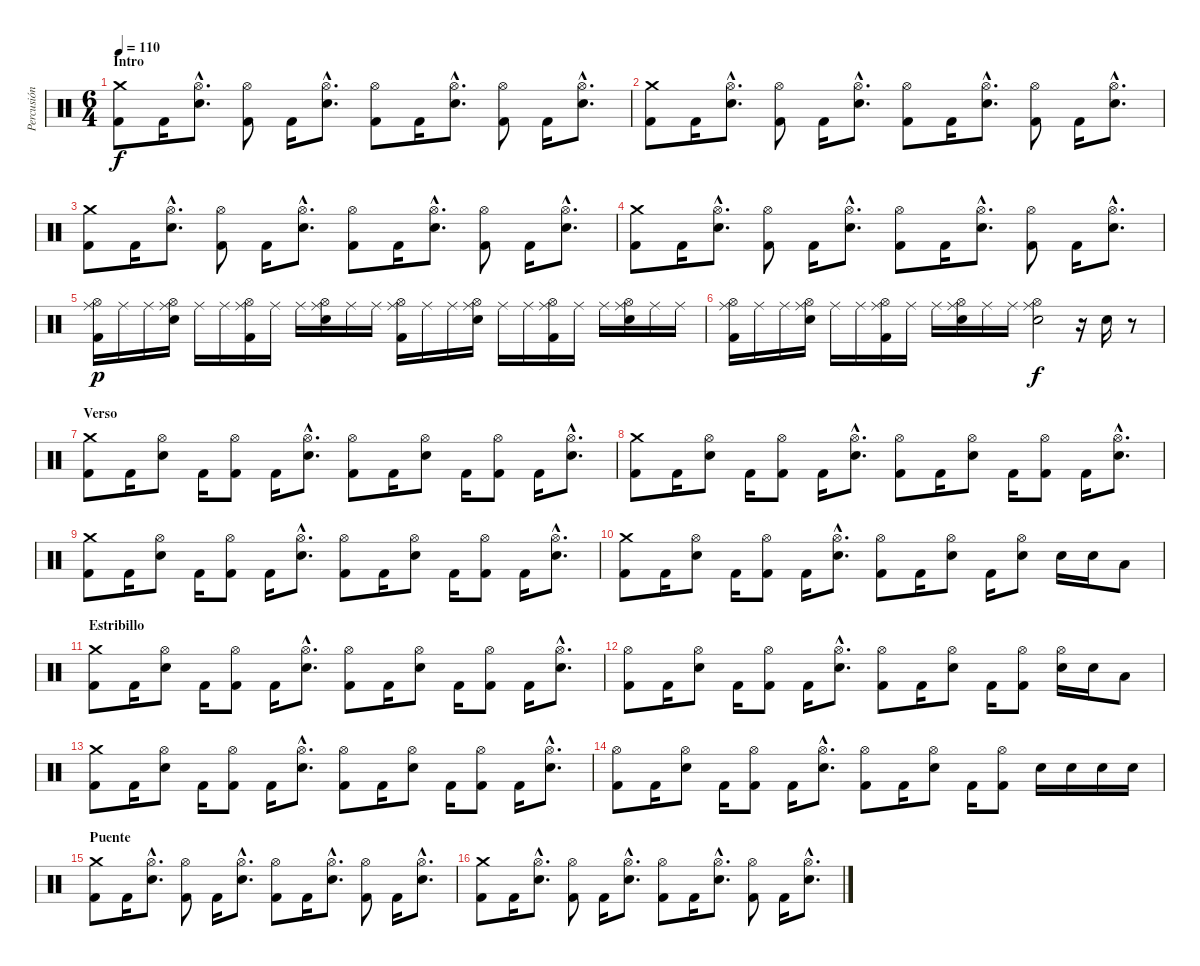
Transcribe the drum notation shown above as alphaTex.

\track ("Percusión" "Percusión") {instrument percussion}
\staff {score}
\articulation defaults
\ts (6 4)
\section ("" "Intro")
\tempo 110
\clef neutral
\ks c
("Crash medium (hit)" "Kick (hit) 2").8{dy f} "Kick (hit) 2".16 ("Hi-Hat (open)"{hac} "Snare (hit) 2"{hac}).8{d} ("Hi-Hat (open)" "Kick (hit) 2").8 "Kick (hit) 2".16 ("Hi-Hat (open)"{hac} "Snare (hit) 2"{hac}).8{d} ("Hi-Hat (open)" "Kick (hit) 2").8 "Kick (hit) 2".16 ("Hi-Hat (open)"{hac} "Snare (hit) 2"{hac}).8{d} ("Hi-Hat (open)" "Kick (hit) 2").8 "Kick (hit) 2".16 ("Hi-Hat (open)"{hac} "Snare (hit) 2"{hac}).8{d} |
("Crash medium (hit)" "Kick (hit) 2").8 "Kick (hit) 2".16 ("Hi-Hat (open)"{hac} "Snare (hit) 2"{hac}).8{d} ("Hi-Hat (open)" "Kick (hit) 2").8 "Kick (hit) 2".16 ("Hi-Hat (open)"{hac} "Snare (hit) 2"{hac}).8{d} ("Hi-Hat (open)" "Kick (hit) 2").8 "Kick (hit) 2".16 ("Hi-Hat (open)"{hac} "Snare (hit) 2"{hac}).8{d} ("Hi-Hat (open)" "Kick (hit) 2").8 "Kick (hit) 2".16 ("Hi-Hat (open)"{hac} "Snare (hit) 2"{hac}).8{d} |
("Crash medium (hit)" "Kick (hit) 2").8 "Kick (hit) 2".16 ("Hi-Hat (open)"{hac} "Snare (hit) 2"{hac}).8{d} ("Hi-Hat (open)" "Kick (hit) 2").8 "Kick (hit) 2".16 ("Hi-Hat (open)"{hac} "Snare (hit) 2"{hac}).8{d} ("Hi-Hat (open)" "Kick (hit) 2").8 "Kick (hit) 2".16 ("Hi-Hat (open)"{hac} "Snare (hit) 2"{hac}).8{d} ("Hi-Hat (open)" "Kick (hit) 2").8 "Kick (hit) 2".16 ("Hi-Hat (open)"{hac} "Snare (hit) 2"{hac}).8{d} |
("Crash medium (hit)" "Kick (hit) 2").8 "Kick (hit) 2".16 ("Hi-Hat (open)"{hac} "Snare (hit) 2"{hac}).8{d} ("Hi-Hat (open)" "Kick (hit) 2").8 "Kick (hit) 2".16 ("Hi-Hat (open)"{hac} "Snare (hit) 2"{hac}).8{d} ("Hi-Hat (open)" "Kick (hit) 2").8 "Kick (hit) 2".16 ("Hi-Hat (open)"{hac} "Snare (hit) 2"{hac}).8{d} ("Hi-Hat (open)" "Kick (hit) 2").8 "Kick (hit) 2".16 ("Hi-Hat (open)"{hac} "Snare (hit) 2"{hac}).8{d} |
("Ride (middle)" "Hi-Hat (open)" "Kick (hit) 2").16{dy p} "Ride (middle)".16 "Ride (middle)".16 ("Ride (middle)" "Hi-Hat (open)" "Snare (hit) 2").16 "Ride (middle)".16 "Ride (middle)".16 ("Ride (middle)" "Hi-Hat (open)" "Kick (hit) 2").16 "Ride (middle)".16 "Ride (middle)".16 ("Ride (middle)" "Hi-Hat (open)" "Snare (hit) 2").16 "Ride (middle)".16 "Ride (middle)".16 ("Ride (middle)" "Hi-Hat (open)" "Kick (hit) 2").16 "Ride (middle)".16 "Ride (middle)".16 ("Ride (middle)" "Hi-Hat (open)" "Snare (hit) 2").16 "Ride (middle)".16 "Ride (middle)".16 ("Ride (middle)" "Hi-Hat (open)" "Kick (hit) 2").16 "Ride (middle)".16 "Ride (middle)".16 ("Ride (middle)" "Hi-Hat (open)" "Snare (hit) 2").16 "Ride (middle)".16 "Ride (middle)".16 |
("Ride (middle)" "Hi-Hat (open)" "Kick (hit) 2").16 "Ride (middle)".16 "Ride (middle)".16 ("Ride (middle)" "Hi-Hat (open)" "Snare (hit) 2").16 "Ride (middle)".16 "Ride (middle)".16 ("Ride (middle)" "Hi-Hat (open)" "Kick (hit) 2").16 "Ride (middle)".16 "Ride (middle)".16 ("Ride (middle)" "Hi-Hat (open)" "Snare (hit) 2").16 "Ride (middle)".16 "Ride (middle)".16 ("Ride (middle)" "Snare (hit) 2" "Hi-Hat (open)").2{dy f} r.16 "Snare (hit) 2".16 r.8 |
\section ("" "Verso ")
("Crash medium (hit)" "Kick (hit) 2").8 "Kick (hit) 2".16 ("Hi-Hat (open)" "Snare (hit) 2").8 "Kick (hit) 2".16 ("Hi-Hat (open)" "Kick (hit) 2").8 "Kick (hit) 2".16 ("Hi-Hat (open)"{hac} "Snare (hit) 2"{hac}).8{d} ("Hi-Hat (open)" "Kick (hit) 2").8 "Kick (hit) 2".16 ("Hi-Hat (open)" "Snare (hit) 2").8 "Kick (hit) 2".16 ("Hi-Hat (open)" "Kick (hit) 2").8 "Kick (hit) 2".16 ("Hi-Hat (open)" "Snare (hit) 2"{hac}).8{d} |
("Crash medium (hit)" "Kick (hit) 2").8 "Kick (hit) 2".16 ("Hi-Hat (open)" "Snare (hit) 2").8 "Kick (hit) 2".16 ("Hi-Hat (open)" "Kick (hit) 2").8 "Kick (hit) 2".16 ("Hi-Hat (open)"{hac} "Snare (hit) 2"{hac}).8{d} ("Hi-Hat (open)" "Kick (hit) 2").8 "Kick (hit) 2".16 ("Hi-Hat (open)" "Snare (hit) 2").8 "Kick (hit) 2".16 ("Hi-Hat (open)" "Kick (hit) 2").8 "Kick (hit) 2".16 ("Hi-Hat (open)" "Snare (hit) 2"{hac}).8{d} |
("Crash medium (hit)" "Kick (hit) 2").8 "Kick (hit) 2".16 ("Hi-Hat (open)" "Snare (hit) 2").8 "Kick (hit) 2".16 ("Hi-Hat (open)" "Kick (hit) 2").8 "Kick (hit) 2".16 ("Hi-Hat (open)"{hac} "Snare (hit) 2"{hac}).8{d} ("Hi-Hat (open)" "Kick (hit) 2").8 "Kick (hit) 2".16 ("Hi-Hat (open)" "Snare (hit) 2").8 "Kick (hit) 2".16 ("Hi-Hat (open)" "Kick (hit) 2").8 "Kick (hit) 2".16 ("Hi-Hat (open)" "Snare (hit) 2"{hac}).8{d} |
("Crash medium (hit)" "Kick (hit) 2").8 "Kick (hit) 2".16 ("Hi-Hat (open)" "Snare (hit) 2").8 "Kick (hit) 2".16 ("Hi-Hat (open)" "Kick (hit) 2").8 "Kick (hit) 2".16 ("Hi-Hat (open)"{hac} "Snare (hit) 2"{hac}).8{d} ("Hi-Hat (open)" "Kick (hit) 2").8 "Kick (hit) 2".16 ("Hi-Hat (open)" "Snare (hit) 2").8 "Kick (hit) 2".16 ("Hi-Hat (open)" "Snare (hit) 2").8 "Snare (hit) 2".16 "Snare (hit) 2".16 "Low Tom (hit)".8 |
\section ("" "Estribillo")
("Crash medium (hit)" "Kick (hit) 2").8 "Kick (hit) 2".16 ("Hi-Hat (open)" "Snare (hit) 2").8 "Kick (hit) 2".16 ("Hi-Hat (open)" "Kick (hit) 2").8 "Kick (hit) 2".16 ("Hi-Hat (open)"{hac} "Snare (hit) 2"{hac}).8{d} ("Hi-Hat (open)" "Kick (hit) 2").8 "Kick (hit) 2".16 ("Hi-Hat (open)" "Snare (hit) 2").8 "Kick (hit) 2".16 ("Hi-Hat (open)" "Kick (hit) 2").8 "Kick (hit) 2".16 ("Hi-Hat (open)" "Snare (hit) 2"{hac}).8{d} |
("Hi-Hat (open)" "Kick (hit) 2").8 "Kick (hit) 2".16 ("Hi-Hat (open)" "Snare (hit) 2").8 "Kick (hit) 2".16 ("Hi-Hat (open)" "Kick (hit) 2").8 "Kick (hit) 2".16 ("Hi-Hat (open)"{hac} "Snare (hit) 2"{hac}).8{d} ("Hi-Hat (open)" "Kick (hit) 2").8 "Kick (hit) 2".16 ("Hi-Hat (open)" "Snare (hit) 2").8 "Kick (hit) 2".16 ("Hi-Hat (open)" "Kick (hit) 2").8 ("Hi-Hat (open)" "Snare (hit) 2").16 "Snare (hit) 2".16 "Low Tom (hit)".8 |
("Crash medium (hit)" "Kick (hit) 2").8 "Kick (hit) 2".16 ("Hi-Hat (open)" "Snare (hit) 2").8 "Kick (hit) 2".16 ("Hi-Hat (open)" "Kick (hit) 2").8 "Kick (hit) 2".16 ("Hi-Hat (open)"{hac} "Snare (hit) 2"{hac}).8{d} ("Hi-Hat (open)" "Kick (hit) 2").8 "Kick (hit) 2".16 ("Hi-Hat (open)" "Snare (hit) 2").8 "Kick (hit) 2".16 ("Hi-Hat (open)" "Kick (hit) 2").8 "Kick (hit) 2".16 ("Hi-Hat (open)" "Snare (hit) 2"{hac}).8{d} |
("Hi-Hat (open)" "Kick (hit) 2").8 "Kick (hit) 2".16 ("Hi-Hat (open)" "Snare (hit) 2").8 "Kick (hit) 2".16 ("Hi-Hat (open)" "Kick (hit) 2").8 "Kick (hit) 2".16 ("Hi-Hat (open)"{hac} "Snare (hit) 2"{hac}).8{d} ("Hi-Hat (open)" "Kick (hit) 2").8 "Kick (hit) 2".16 ("Hi-Hat (open)" "Snare (hit) 2").8 "Kick (hit) 2".16 ("Hi-Hat (open)" "Kick (hit) 2").8 "Snare (hit) 2".16 "Snare (hit) 2".16 "Snare (hit) 2".16 "Snare (hit) 2".16 |
\section ("" "Puente")
("Crash medium (hit)" "Kick (hit) 2").8 "Kick (hit) 2".16 ("Hi-Hat (open)"{hac} "Snare (hit) 2"{hac}).8{d} ("Hi-Hat (open)" "Kick (hit) 2").8 "Kick (hit) 2".16 ("Hi-Hat (open)"{hac} "Snare (hit) 2"{hac}).8{d} ("Hi-Hat (open)" "Kick (hit) 2").8 "Kick (hit) 2".16 ("Hi-Hat (open)"{hac} "Snare (hit) 2"{hac}).8{d} ("Hi-Hat (open)" "Kick (hit) 2").8 "Kick (hit) 2".16 ("Hi-Hat (open)"{hac} "Snare (hit) 2"{hac}).8{d} |
("Crash medium (hit)" "Kick (hit) 2").8 "Kick (hit) 2".16 ("Hi-Hat (open)"{hac} "Snare (hit) 2"{hac}).8{d} ("Hi-Hat (open)" "Kick (hit) 2").8 "Kick (hit) 2".16 ("Hi-Hat (open)"{hac} "Snare (hit) 2"{hac}).8{d} ("Hi-Hat (open)" "Kick (hit) 2").8 "Kick (hit) 2".16 ("Hi-Hat (open)"{hac} "Snare (hit) 2"{hac}).8{d} ("Hi-Hat (open)" "Kick (hit) 2").8 "Kick (hit) 2".16 ("Hi-Hat (open)"{hac} "Snare (hit) 2"{hac}).8{d}
